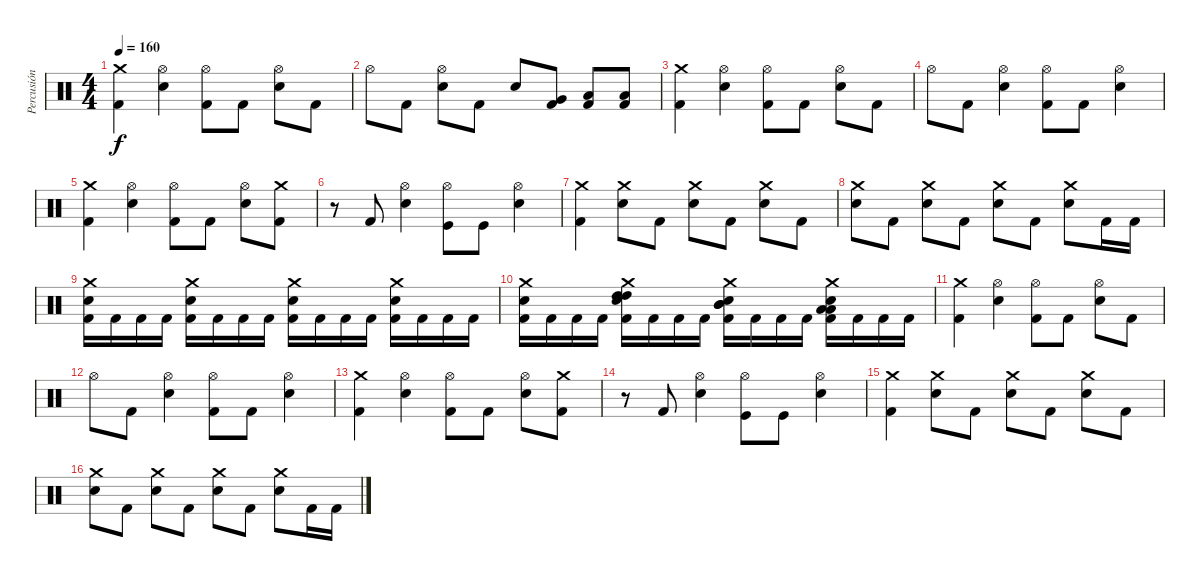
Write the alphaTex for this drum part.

\track ("Percusión" "Percusión") {instrument percussion}
\staff {score}
\articulation defaults
\ts (4 4)
\tempo 160
\clef neutral
\ks c
("Crash medium (hit)" "Kick (hit) 2").4{dy f} ("Hi-Hat (open)" "Snare (hit) 2").4 ("Hi-Hat (open)" "Kick (hit) 2").8 "Kick (hit) 2".8 ("Hi-Hat (open)" "Snare (hit) 2").8 "Kick (hit) 2".8 |
"Hi-Hat (open)".8 "Kick (hit) 2".8 ("Hi-Hat (open)" "Snare (hit) 2").8 "Kick (hit) 2".8 "Snare (hit) 2".8 ("Very Low Tom (hit)" "Kick (hit) 2").8 ("Low Floor Tom (hit)" "Kick (hit) 2").8 ("Low Floor Tom (hit)" "Kick (hit) 2").8 |
("Crash medium (hit)" "Kick (hit) 2").4 ("Hi-Hat (open)" "Snare (hit) 2").4 ("Hi-Hat (open)" "Kick (hit) 2").8 "Kick (hit) 2".8 ("Hi-Hat (open)" "Snare (hit) 2").8 "Kick (hit) 2".8 |
"Hi-Hat (open)".8 "Kick (hit) 2".8 ("Hi-Hat (open)" "Snare (hit) 2").4 ("Hi-Hat (open)" "Kick (hit) 2").8 "Kick (hit) 2".8 ("Hi-Hat (open)" "Snare (hit) 2").4 |
("Crash medium (hit)" "Kick (hit) 2").4 ("Hi-Hat (open)" "Snare (hit) 2").4 ("Hi-Hat (open)" "Kick (hit) 2").8 "Kick (hit) 2".8 ("Hi-Hat (open)" "Snare (hit) 2").8 ("Crash medium (hit)" "Kick (hit) 2").8 |
r.8 "Kick (hit) 2".8 ("Hi-Hat (open)" "Snare (hit) 2").4 ("Hi-Hat (open)" "Kick (hit)").8 "Kick (hit)".8 ("Hi-Hat (open)" "Snare (hit) 2").4 |
("Crash medium (hit)" "Kick (hit) 2").4 ("Crash medium (hit)" "Snare (hit) 2").8 "Kick (hit) 2".8 ("Crash medium (hit)" "Snare (hit) 2").8 "Kick (hit) 2".8 ("Crash medium (hit)" "Snare (hit) 2").8 "Kick (hit) 2".8 |
("Crash medium (hit)" "Snare (hit) 2").8 "Kick (hit) 2".8 ("Crash medium (hit)" "Snare (hit) 2").8 "Kick (hit) 2".8 ("Crash medium (hit)" "Snare (hit) 2").8 "Kick (hit) 2".8 ("Crash medium (hit)" "Snare (hit) 2").8 "Kick (hit) 2".16 "Kick (hit) 2".16 |
("Crash medium (hit)" "Snare (hit) 2" "Kick (hit) 2").16 "Kick (hit) 2".16 "Kick (hit) 2".16 "Kick (hit) 2".16 ("Crash medium (hit)" "Snare (hit) 2" "Kick (hit) 2").16 "Kick (hit) 2".16 "Kick (hit) 2".16 "Kick (hit) 2".16 ("Crash medium (hit)" "Snare (hit) 2" "Kick (hit) 2").16 "Kick (hit) 2".16 "Kick (hit) 2".16 "Kick (hit) 2".16 ("Crash medium (hit)" "Snare (hit) 2" "Kick (hit) 2").16 "Kick (hit) 2".16 "Kick (hit) 2".16 "Kick (hit) 2".16 |
("Crash medium (hit)" "Snare (hit) 2" "Kick (hit) 2").16 "Kick (hit) 2".16 "Kick (hit) 2".16 "Kick (hit) 2".16 ("High Tom (hit)" "High Tom (hit)" "Crash medium (hit)" "Snare (hit) 2" "Kick (hit) 2").16 "Kick (hit) 2".16 "Kick (hit) 2".16 "Kick (hit) 2".16 ("Mid Tom (hit)" "Mid Tom (hit)" "Snare (hit) 2" "Crash medium (hit)" "Kick (hit) 2").16 "Kick (hit) 2".16 "Kick (hit) 2".16 "Kick (hit) 2".16 ("Low Tom (hit)" "Low Tom (hit)" "Snare (hit) 2" "Crash medium (hit)" "Kick (hit) 2").16 "Kick (hit) 2".16 "Kick (hit) 2".16 "Kick (hit) 2".16 |
("Crash medium (hit)" "Kick (hit) 2").4 ("Hi-Hat (open)" "Snare (hit) 2").4 ("Hi-Hat (open)" "Kick (hit) 2").8 "Kick (hit) 2".8 ("Hi-Hat (open)" "Snare (hit) 2").8 "Kick (hit) 2".8 |
"Hi-Hat (open)".8 "Kick (hit) 2".8 ("Hi-Hat (open)" "Snare (hit) 2").4 ("Hi-Hat (open)" "Kick (hit) 2").8 "Kick (hit) 2".8 ("Hi-Hat (open)" "Snare (hit) 2").4 |
("Crash medium (hit)" "Kick (hit) 2").4 ("Hi-Hat (open)" "Snare (hit) 2").4 ("Hi-Hat (open)" "Kick (hit) 2").8 "Kick (hit) 2".8 ("Hi-Hat (open)" "Snare (hit) 2").8 ("Crash medium (hit)" "Kick (hit) 2").8 |
r.8 "Kick (hit) 2".8 ("Hi-Hat (open)" "Snare (hit) 2").4 ("Hi-Hat (open)" "Kick (hit)").8 "Kick (hit)".8 ("Hi-Hat (open)" "Snare (hit) 2").4 |
("Crash medium (hit)" "Kick (hit) 2").4 ("Crash medium (hit)" "Snare (hit) 2").8 "Kick (hit) 2".8 ("Crash medium (hit)" "Snare (hit) 2").8 "Kick (hit) 2".8 ("Crash medium (hit)" "Snare (hit) 2").8 "Kick (hit) 2".8 |
("Crash medium (hit)" "Snare (hit) 2").8 "Kick (hit) 2".8 ("Crash medium (hit)" "Snare (hit) 2").8 "Kick (hit) 2".8 ("Crash medium (hit)" "Snare (hit) 2").8 "Kick (hit) 2".8 ("Crash medium (hit)" "Snare (hit) 2").8 "Kick (hit) 2".16 "Kick (hit) 2".16
